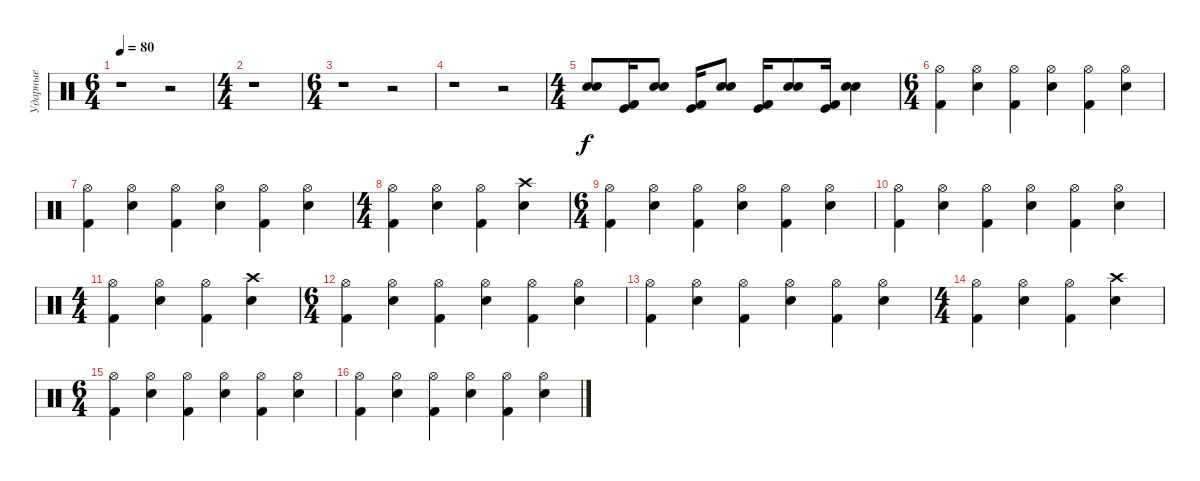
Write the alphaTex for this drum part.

\track ("Ударные" "Ударные") {instrument percussion}
\staff {score}
\articulation defaults
\ts (6 4)
\tempo 80
\clef neutral
\ks c
r.1{dy f} r.2 |
\ts (4 4)
r.1 |
\ts (6 4)
r.1 r.2 |
r.1 r.2 |
\ts (4 4)
("Snare (hit) 2" "Electric Snare (hit)").8 ("Kick (hit)" "Kick (hit) 2").16 ("Snare (hit) 2" "Electric Snare (hit)").8 ("Kick (hit) 2" "Kick (hit)").16 ("Snare (hit) 2" "Electric Snare (hit)").8 ("Kick (hit)" "Kick (hit) 2").16 ("Electric Snare (hit)" "Snare (hit) 2").8 ("Kick (hit) 2" "Kick (hit)").16 ("Snare (hit) 2" "Electric Snare (hit)").4 |
\ts (6 4)
("Hi-Hat (open)" "Kick (hit) 2").4 ("Hi-Hat (open)" "Electric Snare (hit)").4 ("Hi-Hat (open)" "Kick (hit) 2").4 ("Hi-Hat (open)" "Electric Snare (hit)").4 ("Hi-Hat (open)" "Kick (hit) 2").4 ("Hi-Hat (open)" "Electric Snare (hit)").4 |
("Hi-Hat (open)" "Kick (hit) 2").4 ("Hi-Hat (open)" "Electric Snare (hit)").4 ("Hi-Hat (open)" "Kick (hit) 2").4 ("Hi-Hat (open)" "Electric Snare (hit)").4 ("Hi-Hat (open)" "Kick (hit) 2").4 ("Hi-Hat (open)" "Electric Snare (hit)").4 |
\ts (4 4)
("Hi-Hat (open)" "Kick (hit) 2").4 ("Hi-Hat (open)" "Electric Snare (hit)").4 ("Hi-Hat (open)" "Kick (hit) 2").4 ("Crash high (hit)" "Electric Snare (hit)").4 |
\ts (6 4)
("Hi-Hat (open)" "Kick (hit) 2").4 ("Hi-Hat (open)" "Electric Snare (hit)").4 ("Hi-Hat (open)" "Kick (hit) 2").4 ("Hi-Hat (open)" "Electric Snare (hit)").4 ("Hi-Hat (open)" "Kick (hit) 2").4 ("Hi-Hat (open)" "Electric Snare (hit)").4 |
("Hi-Hat (open)" "Kick (hit) 2").4 ("Hi-Hat (open)" "Electric Snare (hit)").4 ("Hi-Hat (open)" "Kick (hit) 2").4 ("Hi-Hat (open)" "Electric Snare (hit)").4 ("Hi-Hat (open)" "Kick (hit) 2").4 ("Hi-Hat (open)" "Electric Snare (hit)").4 |
\ts (4 4)
("Hi-Hat (open)" "Kick (hit) 2").4 ("Hi-Hat (open)" "Electric Snare (hit)").4 ("Hi-Hat (open)" "Kick (hit) 2").4 ("Crash high (hit)" "Electric Snare (hit)").4 |
\ts (6 4)
("Hi-Hat (open)" "Kick (hit) 2").4 ("Hi-Hat (open)" "Electric Snare (hit)").4 ("Hi-Hat (open)" "Kick (hit) 2").4 ("Hi-Hat (open)" "Electric Snare (hit)").4 ("Hi-Hat (open)" "Kick (hit) 2").4 ("Hi-Hat (open)" "Electric Snare (hit)").4 |
("Hi-Hat (open)" "Kick (hit) 2").4 ("Hi-Hat (open)" "Electric Snare (hit)").4 ("Hi-Hat (open)" "Kick (hit) 2").4 ("Hi-Hat (open)" "Electric Snare (hit)").4 ("Hi-Hat (open)" "Kick (hit) 2").4 ("Hi-Hat (open)" "Electric Snare (hit)").4 |
\ts (4 4)
("Hi-Hat (open)" "Kick (hit) 2").4 ("Hi-Hat (open)" "Electric Snare (hit)").4 ("Hi-Hat (open)" "Kick (hit) 2").4 ("Crash high (hit)" "Electric Snare (hit)").4 |
\ts (6 4)
("Hi-Hat (open)" "Kick (hit) 2").4 ("Hi-Hat (open)" "Electric Snare (hit)").4 ("Hi-Hat (open)" "Kick (hit) 2").4 ("Hi-Hat (open)" "Electric Snare (hit)").4 ("Hi-Hat (open)" "Kick (hit) 2").4 ("Hi-Hat (open)" "Electric Snare (hit)").4 |
("Hi-Hat (open)" "Kick (hit) 2").4 ("Hi-Hat (open)" "Electric Snare (hit)").4 ("Hi-Hat (open)" "Kick (hit) 2").4 ("Hi-Hat (open)" "Electric Snare (hit)").4 ("Hi-Hat (open)" "Kick (hit) 2").4 ("Hi-Hat (open)" "Electric Snare (hit)").4
